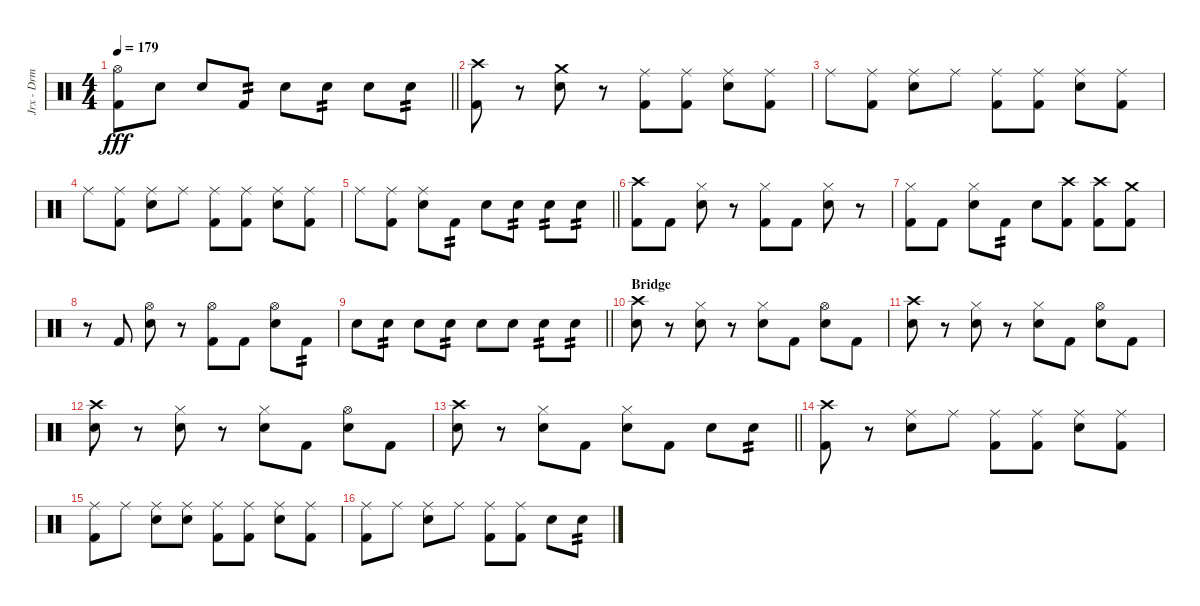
\track ("Jrx - Drm" "Jrx - Drm") {instrument percussion}
\staff {score}
\articulation defaults
\ts (4 4)
\tempo 179
\clef neutral
\barLineRight lightlight
\ks c
("Hi-Hat (open)" "Kick (hit) 2").8{dy fff} "Snare (hit) 2".8 "Snare (hit) 2".8 "Kick (hit) 2".8{tp 2} "Snare (hit) 2".8 "Snare (hit) 2".8{tp 2} "Snare (hit) 2".8 "Snare (hit) 2".8{tp 2} |
("Kick (hit) 2" "Crash high (hit)").8 r.8 ("Snare (hit) 2" "Crash medium (hit)").8 r.8 ("Kick (hit) 2" "Ride (middle)").8 ("Kick (hit) 2" "Ride (middle)").8 ("Snare (hit) 2" "Ride (middle)").8 ("Kick (hit) 2" "Ride (middle)").8 |
"Ride (middle)".8 ("Kick (hit) 2" "Ride (middle)").8 ("Snare (hit) 2" "Ride (middle)").8 "Ride (middle)".8 ("Kick (hit) 2" "Ride (middle)").8 ("Kick (hit) 2" "Ride (middle)").8 ("Snare (hit) 2" "Ride (middle)").8 ("Kick (hit) 2" "Ride (middle)").8 |
"Ride (middle)".8 ("Kick (hit) 2" "Ride (middle)").8 ("Snare (hit) 2" "Ride (middle)").8 "Ride (middle)".8 ("Kick (hit) 2" "Ride (middle)").8 ("Kick (hit) 2" "Ride (middle)").8 ("Snare (hit) 2" "Ride (middle)").8 ("Kick (hit) 2" "Ride (middle)").8 |
\barLineRight lightlight "Ride (middle)".8
("Kick (hit) 2" "Ride (middle)").8 ("Snare (hit) 2" "Ride (middle)").8 "Kick (hit) 2".8{tp 2} "Snare (hit) 2".8 "Snare (hit) 2".8{tp 2} "Snare (hit) 2".8{tp 2} "Snare (hit) 2".8{tp 2} |
("Kick (hit) 2" "Crash high (hit)").8 "Kick (hit) 2".8 ("Hi-Hat (closed)" "Snare (hit) 2").8 r.8 ("Hi-Hat (closed)" "Kick (hit) 2").8 "Kick (hit) 2".8 ("Hi-Hat (closed)" "Snare (hit) 2").8 r.8 |
("Hi-Hat (closed)" "Kick (hit) 2").8 "Kick (hit) 2".8 ("Hi-Hat (closed)" "Snare (hit) 2").8 "Kick (hit) 2".8{tp 2} "Snare (hit) 2".8 ("Kick (hit) 2" "Crash high (hit)").8 ("Kick (hit) 2" "Crash high (hit)").8 ("Kick (hit) 2" "Crash medium (hit)").8 |
r.8 "Kick (hit) 2".8 ("Hi-Hat (open)" "Snare (hit) 2").8 r.8 ("Hi-Hat (open)" "Kick (hit) 2").8 "Kick (hit) 2".8 ("Hi-Hat (open)" "Snare (hit) 2").8 "Kick (hit) 2".8{tp 2} |
\barLineRight lightlight "Snare (hit) 2".8 "Snare (hit) 2".8{tp 2} "Snare (hit) 2".8 "Snare (hit) 2".8{tp 2} "Snare (hit) 2".8 "Snare (hit) 2".8 "Snare (hit) 2".8{tp 2} "Snare (hit) 2".8{tp 2}
|
\section ("" "Bridge")
("Snare (hit) 2" "Crash high (hit)").8 r.8 ("Hi-Hat (closed)" "Snare (hit) 2").8 r.8 ("Hi-Hat (closed)" "Snare (hit) 2").8 "Kick (hit) 2".8 ("Hi-Hat (open)" "Snare (hit) 2").8 "Kick (hit) 2".8 |
("Snare (hit) 2" "Crash high (hit)").8 r.8 ("Hi-Hat (closed)" "Snare (hit) 2").8 r.8 ("Hi-Hat (closed)" "Snare (hit) 2").8 "Kick (hit) 2".8 ("Hi-Hat (open)" "Snare (hit) 2").8 "Kick (hit) 2".8 |
("Snare (hit) 2" "Crash high (hit)").8 r.8 ("Hi-Hat (closed)" "Snare (hit) 2").8 r.8 ("Hi-Hat (closed)" "Snare (hit) 2").8 "Kick (hit) 2".8 ("Hi-Hat (open)" "Snare (hit) 2").8 "Kick (hit) 2".8 |
\barLineRight lightlight
("Snare (hit) 2" "Crash high (hit)").8 r.8 ("Hi-Hat (closed)" "Snare (hit) 2").8 "Kick (hit) 2".8 ("Hi-Hat (closed)" "Snare (hit) 2").8 "Kick (hit) 2".8 "Snare (hit) 2".8 "Snare (hit) 2".8{tp 2} |
("Kick (hit) 2" "Crash high (hit)").8 r.8 ("Snare (hit) 2" "Ride (middle)").8 "Ride (middle)".8 ("Kick (hit) 2" "Ride (middle)").8 ("Kick (hit) 2" "Ride (middle)").8 ("Snare (hit) 2" "Ride (middle)").8 ("Kick (hit) 2" "Ride (middle)").8 |
("Kick (hit) 2" "Ride (middle)").8 "Ride (middle)".8 ("Snare (hit) 2" "Ride (middle)").8 ("Snare (hit) 2" "Ride (middle)").8 ("Kick (hit) 2" "Ride (middle)").8 ("Kick (hit) 2" "Ride (middle)").8 ("Snare (hit) 2" "Ride (middle)").8 ("Kick (hit) 2" "Ride (middle)").8 |
("Kick (hit) 2" "Ride (middle)").8 "Ride (middle)".8 ("Snare (hit) 2" "Ride (middle)").8 "Ride (middle)".8 ("Kick (hit) 2" "Ride (middle)").8 ("Kick (hit) 2" "Ride (middle)").8 "Snare (hit) 2".8 "Snare (hit) 2".8{tp 2}
